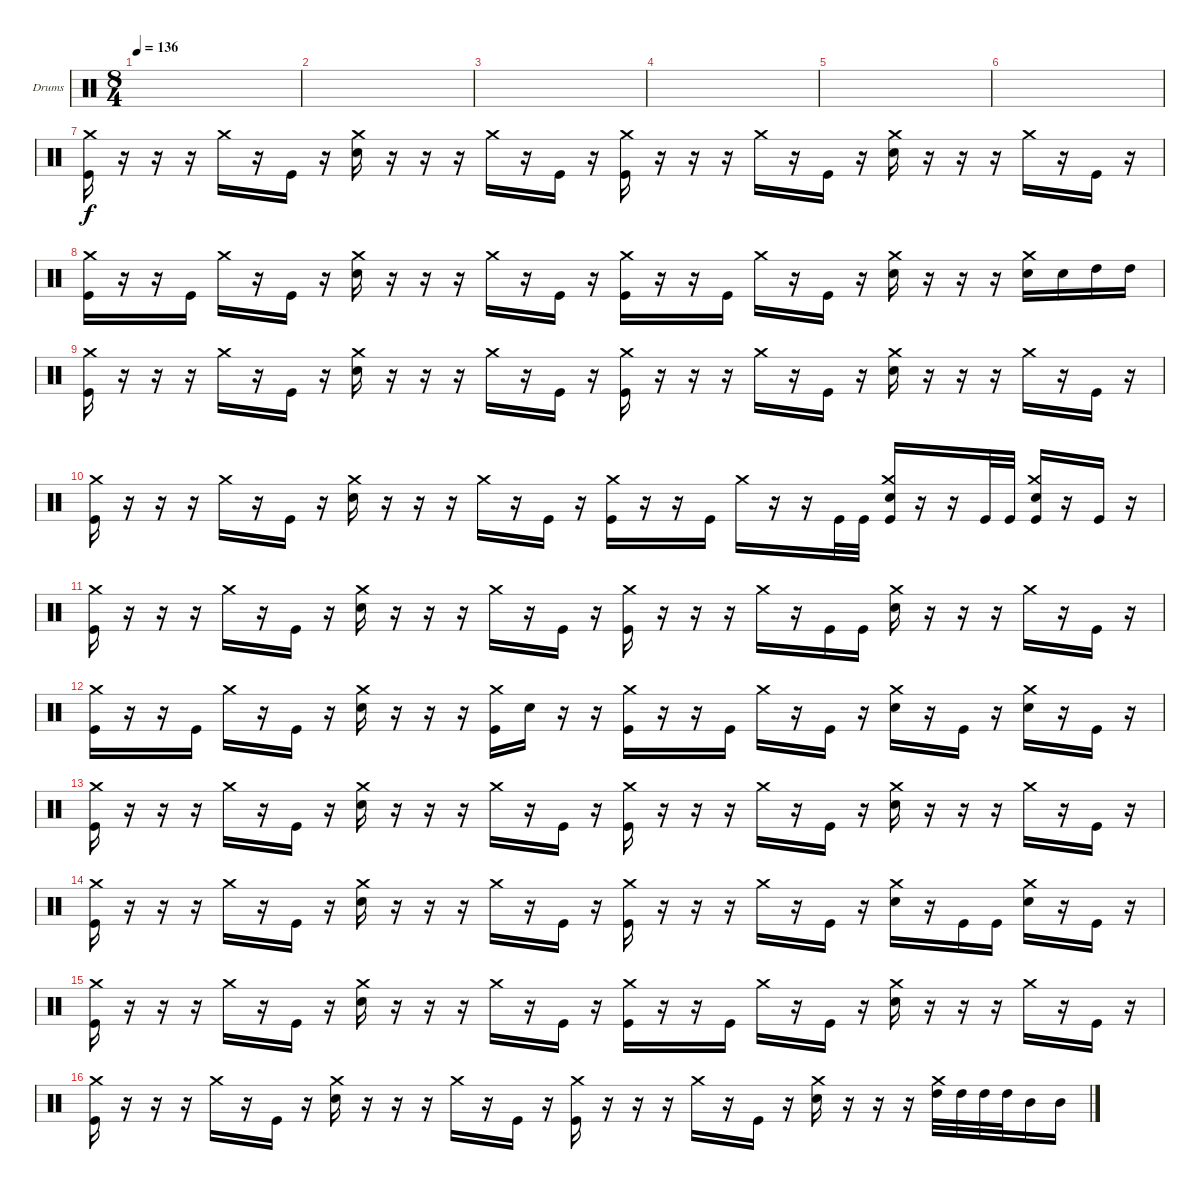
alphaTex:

\defaultSystemsLayout 4
\bracketExtendMode groupsimilarinstruments
\firstSystemTrackNameOrientation horizontal
\otherSystemsTrackNameOrientation horizontal
\track ("Drumkit" "Drums") {instrument percussion}
\staff {score}
\articulation defaults
\ts (8 4)
\tempo 136
\clef neutral
\scale
0.56208
\ks c
|
\scale
0.43736 |
|
|
|
|
("Kick (hit)" "Crash medium (hit)").16 r.16 r.16 r.16 "Crash medium (hit)".16 r.16 "Kick (hit)".16 r.16 ("Snare (hit) 2" "Crash medium (hit)").16 r.16 r.16 r.16 "Crash medium (hit)".16 r.16 "Kick (hit)".16 r.16 ("Kick (hit)" "Crash medium (hit)").16 r.16 r.16 r.16 "Crash medium (hit)".16 r.16 "Kick (hit)".16 r.16 ("Snare (hit) 2" "Crash medium (hit)").16 r.16 r.16 r.16 "Crash medium (hit)".16 r.16 "Kick (hit)".16 r.16 |
("Kick (hit)" "Crash medium (hit)").16 r.16 r.16 "Kick (hit)".16 "Crash medium (hit)".16 r.16 "Kick (hit)".16 r.16 ("Snare (hit) 2" "Crash medium (hit)").16 r.16 r.16 r.16 "Crash medium (hit)".16 r.16 "Kick (hit)".16 r.16 ("Kick (hit)" "Crash medium (hit)").16 r.16 r.16 "Kick (hit)".16 "Crash medium (hit)".16 r.16 "Kick (hit)".16 r.16 ("Snare (hit) 2" "Crash medium (hit)").16 r.16 r.16 r.16 ("Crash medium (hit)" "Snare (hit) 2").16 "Snare (hit) 2".16 "High Tom (hit)".16 "High Tom (hit)".16 |
("Kick (hit)" "Crash medium (hit)").16 r.16 r.16 r.16 "Crash medium (hit)".16 r.16 "Kick (hit)".16 r.16 ("Snare (hit) 2" "Crash medium (hit)").16 r.16 r.16 r.16 "Crash medium (hit)".16 r.16 "Kick (hit)".16 r.16 ("Kick (hit)" "Crash medium (hit)").16 r.16 r.16 r.16 "Crash medium (hit)".16 r.16 "Kick (hit)".16 r.16 ("Snare (hit) 2" "Crash medium (hit)").16 r.16 r.16 r.16 "Crash medium (hit)".16 r.16 "Kick (hit)".16 r.16 |
("Kick (hit)" "Crash medium (hit)").16 r.16 r.16 r.16 "Crash medium (hit)".16 r.16 "Kick (hit)".16 r.16 ("Snare (hit) 2" "Crash medium (hit)").16 r.16 r.16 r.16 "Crash medium (hit)".16 r.16 "Kick (hit)".16 r.16 ("Kick (hit)" "Crash medium (hit)").16 r.16 r.16 "Kick (hit)".16 "Crash medium (hit)".16 r.16 r.16 "Kick (hit)".32 "Kick (hit)".32 ("Crash medium (hit)" "Kick (hit)" "Snare (hit) 2").16 r.16 r.16 "Kick (hit)".32 "Kick (hit)".32 ("Crash medium (hit)" "Snare (hit) 2" "Kick (hit)").16 r.16 "Kick (hit)".16 r.16 |
("Kick (hit)" "Crash medium (hit)").16 r.16 r.16 r.16 "Crash medium (hit)".16 r.16 "Kick (hit)".16 r.16 ("Snare (hit) 2" "Crash medium (hit)").16 r.16 r.16 r.16 "Crash medium (hit)".16 r.16 "Kick (hit)".16 r.16 ("Kick (hit)" "Crash medium (hit)").16 r.16 r.16 r.16 "Crash medium (hit)".16 r.16 "Kick (hit)".16 "Kick (hit)".16 ("Snare (hit) 2" "Crash medium (hit)").16 r.16 r.16 r.16 "Crash medium (hit)".16 r.16 "Kick (hit)".16 r.16 |
("Kick (hit)" "Crash medium (hit)").16 r.16 r.16 "Kick (hit)".16 "Crash medium (hit)".16 r.16 "Kick (hit)".16 r.16 ("Snare (hit) 2" "Crash medium (hit)").16 r.16 r.16 r.16 ("Crash medium (hit)" "Kick (hit)").16 "Snare (hit) 2".16 r.16 r.16 ("Kick (hit)" "Crash medium (hit)").16 r.16 r.16 "Kick (hit)".16 "Crash medium (hit)".16 r.16 "Kick (hit)".16 r.16 ("Snare (hit) 2" "Crash medium (hit)").16 r.16 "Kick (hit)".16 r.16 ("Crash medium (hit)" "Snare (hit) 2").16 r.16 "Kick (hit)".16 r.16 |
("Kick (hit)" "Crash medium (hit)").16 r.16 r.16 r.16 "Crash medium (hit)".16 r.16 "Kick (hit)".16 r.16 ("Snare (hit) 2" "Crash medium (hit)").16 r.16 r.16 r.16 "Crash medium (hit)".16 r.16 "Kick (hit)".16 r.16 ("Kick (hit)" "Crash medium (hit)").16 r.16 r.16 r.16 "Crash medium (hit)".16 r.16 "Kick (hit)".16 r.16 ("Snare (hit) 2" "Crash medium (hit)").16 r.16 r.16 r.16 "Crash medium (hit)".16 r.16 "Kick (hit)".16 r.16 |
("Kick (hit)" "Crash medium (hit)").16 r.16 r.16 r.16 "Crash medium (hit)".16 r.16 "Kick (hit)".16 r.16 ("Snare (hit) 2" "Crash medium (hit)").16 r.16 r.16 r.16 "Crash medium (hit)".16 r.16 "Kick (hit)".16 r.16 ("Kick (hit)" "Crash medium (hit)").16 r.16 r.16 r.16 "Crash medium (hit)".16 r.16 "Kick (hit)".16 r.16 ("Snare (hit) 2" "Crash medium (hit)").16 r.16 "Kick (hit)".16 "Kick (hit)".16 ("Crash medium (hit)" "Snare (hit) 2").16 r.16 "Kick (hit)".16 r.16 |
("Kick (hit)" "Crash medium (hit)").16 r.16 r.16 r.16 "Crash medium (hit)".16 r.16 "Kick (hit)".16 r.16 ("Snare (hit) 2" "Crash medium (hit)").16 r.16 r.16 r.16 "Crash medium (hit)".16 r.16 "Kick (hit)".16 r.16 ("Kick (hit)" "Crash medium (hit)").16 r.16 r.16 "Kick (hit)".16 "Crash medium (hit)".16 r.16 "Kick (hit)".16 r.16 ("Snare (hit) 2" "Crash medium (hit)").16 r.16 r.16 r.16 "Crash medium (hit)".16 r.16 "Kick (hit)".16 r.16 |
("Kick (hit)" "Crash medium (hit)").16 r.16 r.16 r.16 "Crash medium (hit)".16 r.16 "Kick (hit)".16 r.16 ("Snare (hit) 2" "Crash medium (hit)").16 r.16 r.16 r.16 "Crash medium (hit)".16 r.16 "Kick (hit)".16 r.16 ("Kick (hit)" "Crash medium (hit)").16 r.16 r.16 r.16 "Crash medium (hit)".16 r.16 "Kick (hit)".16 r.16 ("Snare (hit) 2" "Crash medium (hit)").16 r.16 r.16 r.16 ("Crash medium (hit)" "High Tom (hit)").32 "High Tom (hit)".32 "High Tom (hit)".32 "High Tom (hit)".32 "Mid Tom (hit)".16 "Mid Tom (hit)".16
